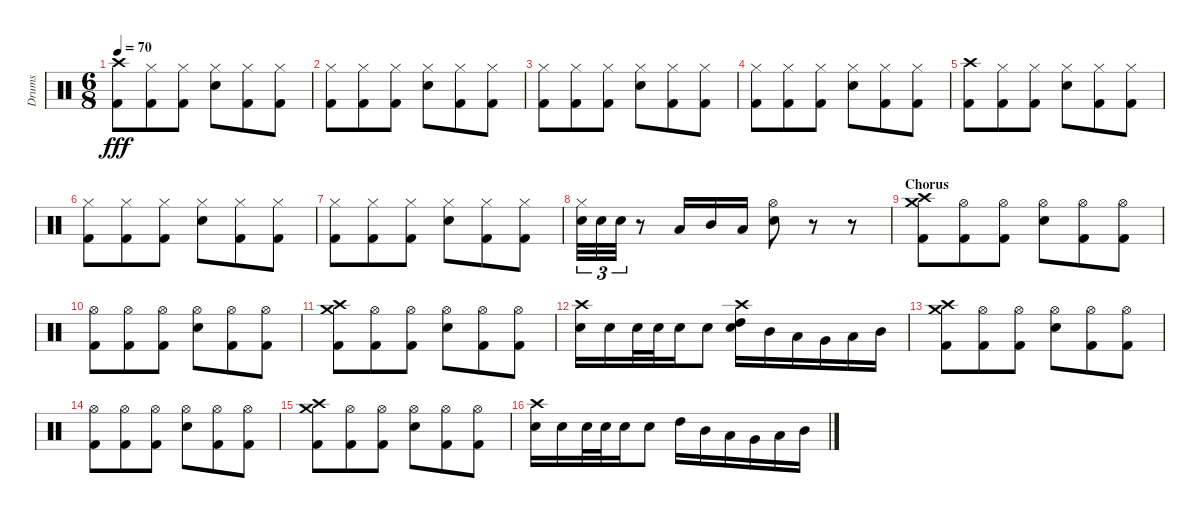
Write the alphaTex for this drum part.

\track ("Drums" "Drums") {instrument percussion}
\staff {score}
\articulation defaults
\ts (6 8)
\tempo 70
\clef neutral
\ks c
("Crash high (hit)" "Kick (hit) 2").8{dy fff} ("Hi-Hat (closed)" "Kick (hit) 2").8 ("Hi-Hat (closed)" "Kick (hit) 2").8 ("Hi-Hat (closed)" "Electric Snare (hit)").8 ("Hi-Hat (closed)" "Kick (hit) 2").8 ("Hi-Hat (closed)" "Kick (hit) 2").8 |
("Hi-Hat (closed)" "Kick (hit) 2").8 ("Hi-Hat (closed)" "Kick (hit) 2").8 ("Hi-Hat (closed)" "Kick (hit) 2").8 ("Hi-Hat (closed)" "Electric Snare (hit)").8 ("Hi-Hat (closed)" "Kick (hit) 2").8 ("Hi-Hat (closed)" "Kick (hit) 2").8 |
("Hi-Hat (closed)" "Kick (hit) 2").8 ("Hi-Hat (closed)" "Kick (hit) 2").8 ("Hi-Hat (closed)" "Kick (hit) 2").8 ("Hi-Hat (closed)" "Electric Snare (hit)").8 ("Hi-Hat (closed)" "Kick (hit) 2").8 ("Hi-Hat (closed)" "Kick (hit) 2").8 |
("Hi-Hat (closed)" "Kick (hit) 2").8 ("Hi-Hat (closed)" "Kick (hit) 2").8 ("Hi-Hat (closed)" "Kick (hit) 2").8 ("Hi-Hat (closed)" "Electric Snare (hit)").8 ("Hi-Hat (closed)" "Kick (hit) 2").8 ("Hi-Hat (closed)" "Kick (hit) 2").8 |
("Crash high (hit)" "Kick (hit) 2").8 ("Hi-Hat (closed)" "Kick (hit) 2").8 ("Hi-Hat (closed)" "Kick (hit) 2").8 ("Hi-Hat (closed)" "Electric Snare (hit)").8 ("Hi-Hat (closed)" "Kick (hit) 2").8 ("Hi-Hat (closed)" "Kick (hit) 2").8 |
("Hi-Hat (closed)" "Kick (hit) 2").8 ("Hi-Hat (closed)" "Kick (hit) 2").8 ("Hi-Hat (closed)" "Kick (hit) 2").8 ("Hi-Hat (closed)" "Electric Snare (hit)").8 ("Hi-Hat (closed)" "Kick (hit) 2").8 ("Hi-Hat (closed)" "Kick (hit) 2").8 |
("Hi-Hat (closed)" "Kick (hit) 2").8 ("Hi-Hat (closed)" "Kick (hit) 2").8 ("Hi-Hat (closed)" "Kick (hit) 2").8 ("Hi-Hat (closed)" "Electric Snare (hit)").8 ("Hi-Hat (closed)" "Kick (hit) 2").8 ("Hi-Hat (closed)" "Kick (hit) 2").8 |
("Hi-Hat (closed)" "Electric Snare (hit)").32{tu (3 2)} "Electric Snare (hit)".32{tu (3 2)} "Electric Snare (hit)".32{tu (3 2)} r.8 "Low Tom (hit)".16 "Mid Tom (hit)".16 "Low Tom (hit)".16 ("Hi-Hat (open)" "Electric Snare (hit)").8 r.8 r.8 |
\section ("" "Chorus")
("Crash high (hit)" "Crash medium (hit)" "Kick (hit) 2").8 ("Hi-Hat (open)" "Kick (hit) 2").8 ("Hi-Hat (open)" "Kick (hit) 2").8 ("Hi-Hat (open)" "Electric Snare (hit)").8 ("Hi-Hat (open)" "Kick (hit) 2").8 ("Hi-Hat (open)" "Kick (hit) 2").8 |
("Hi-Hat (open)" "Kick (hit) 2").8 ("Hi-Hat (open)" "Kick (hit) 2").8 ("Hi-Hat (open)" "Kick (hit) 2").8 ("Hi-Hat (open)" "Electric Snare (hit)").8 ("Hi-Hat (open)" "Kick (hit) 2").8 ("Hi-Hat (open)" "Kick (hit) 2").8 |
("Crash high (hit)" "Crash medium (hit)" "Kick (hit) 2").8 ("Hi-Hat (open)" "Kick (hit) 2").8 ("Hi-Hat (open)" "Kick (hit) 2").8 ("Hi-Hat (open)" "Electric Snare (hit)").8 ("Hi-Hat (open)" "Kick (hit) 2").8 ("Hi-Hat (open)" "Kick (hit) 2").8 |
("Crash high (hit)" "Electric Snare (hit)").16 "Electric Snare (hit)".16 "Electric Snare (hit)".32 "Electric Snare (hit)".32 "Electric Snare (hit)".16 "Electric Snare (hit)".8 ("Crash high (hit)" "High Tom (hit)" "Electric Snare (hit)").16 "Mid Tom (hit)".16 "Low Tom (hit)".16 "Very Low Tom (hit)".16 "Low Tom (hit)".16 "Mid Tom (hit)".16 |
("Crash high (hit)" "Crash medium (hit)" "Kick (hit) 2").8 ("Hi-Hat (open)" "Kick (hit) 2").8 ("Hi-Hat (open)" "Kick (hit) 2").8 ("Hi-Hat (open)" "Electric Snare (hit)").8 ("Hi-Hat (open)" "Kick (hit) 2").8 ("Hi-Hat (open)" "Kick (hit) 2").8 |
("Hi-Hat (open)" "Kick (hit) 2").8 ("Hi-Hat (open)" "Kick (hit) 2").8 ("Hi-Hat (open)" "Kick (hit) 2").8 ("Hi-Hat (open)" "Electric Snare (hit)").8 ("Hi-Hat (open)" "Kick (hit) 2").8 ("Hi-Hat (open)" "Kick (hit) 2").8 |
("Crash high (hit)" "Crash medium (hit)" "Kick (hit) 2").8 ("Hi-Hat (open)" "Kick (hit) 2").8 ("Hi-Hat (open)" "Kick (hit) 2").8 ("Hi-Hat (open)" "Electric Snare (hit)").8 ("Hi-Hat (open)" "Kick (hit) 2").8 ("Hi-Hat (open)" "Kick (hit) 2").8 |
("Crash high (hit)" "Electric Snare (hit)").16 "Electric Snare (hit)".16 "Electric Snare (hit)".32 "Electric Snare (hit)".32 "Electric Snare (hit)".16 "Electric Snare (hit)".8 "High Tom (hit)".16 "Mid Tom (hit)".16 "Low Tom (hit)".16 "Very Low Tom (hit)".16 "Low Tom (hit)".16 "Mid Tom (hit)".16
